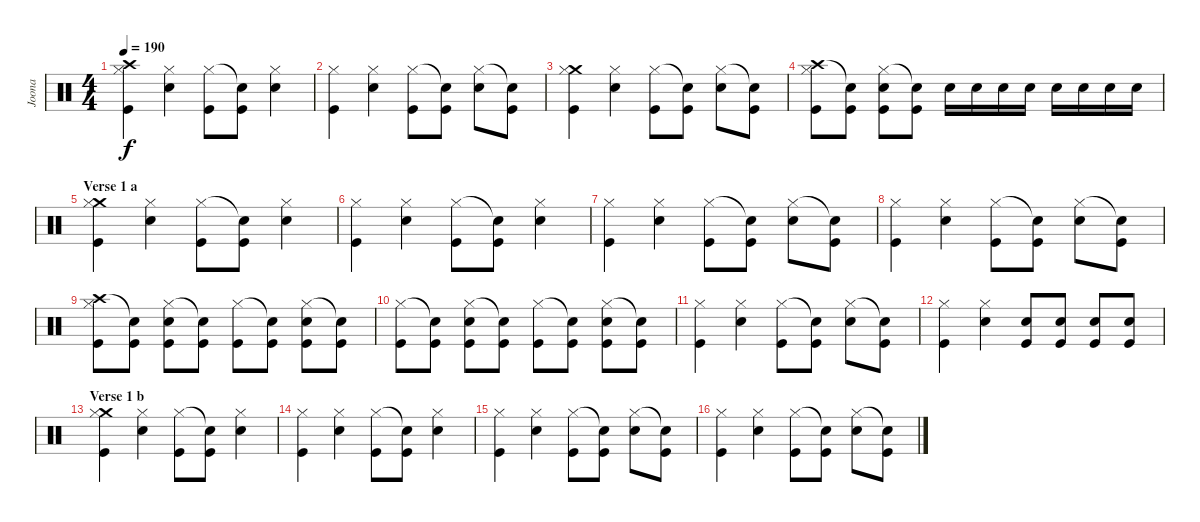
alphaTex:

\track ("Joona" "Joona") {instrument percussion}
\staff {score}
\articulation defaults
\ts (4 4)
\tempo 190
\clef neutral
\ks c
("Crash high (hit)" "Hi-Hat (closed)" "Kick (hit)").4{dy f} ("Hi-Hat (closed)" "Snare (hit) 2").4 ("Hi-Hat (closed)" "Kick (hit)").8 ("Snare (hit)"{t} "Kick (hit)").8 ("Hi-Hat (closed)" "Snare (hit) 2").4 |
("Hi-Hat (closed)" "Kick (hit)").4 ("Hi-Hat (closed)" "Snare (hit) 2").4 ("Hi-Hat (closed)" "Kick (hit)").8 ("Snare (hit)"{t} "Kick (hit)").8 ("Hi-Hat (closed)" "Snare (hit) 2").8 ("Snare (hit)"{t} "Kick (hit)").8 |
("Crash medium (hit)" "Hi-Hat (closed)" "Kick (hit)").4 ("Hi-Hat (closed)" "Snare (hit) 2").4 ("Hi-Hat (closed)" "Kick (hit)").8 ("Snare (hit)"{t} "Kick (hit)").8 ("Hi-Hat (closed)" "Snare (hit) 2").8 ("Snare (hit)"{t} "Kick (hit)").8 |
("Crash high (hit)" "Hi-Hat (closed)" "Kick (hit)").8 ("Snare (hit)"{t} "Kick (hit)").8 ("Hi-Hat (closed)" "Snare (hit) 2" "Kick (hit)").8 ("Snare (hit)"{t} "Kick (hit)").8 "Snare (hit) 2".16 "Snare (hit) 2".16 "Snare (hit) 2".16 "Snare (hit) 2".16 "Snare (hit) 2".16 "Snare (hit) 2".16 "Snare (hit) 2".16 "Snare (hit) 2".16 |
\section ("" "Verse 1 a")
("Crash medium (hit)" "Hi-Hat (closed)" "Kick (hit)").4 ("Hi-Hat (closed)" "Snare (hit) 2").4 ("Hi-Hat (closed)" "Kick (hit)").8 ("Snare (hit)"{t} "Kick (hit)").8 ("Hi-Hat (closed)" "Snare (hit) 2").4 |
("Hi-Hat (closed)" "Kick (hit)").4 ("Hi-Hat (closed)" "Snare (hit) 2").4 ("Hi-Hat (closed)" "Kick (hit)").8 ("Snare (hit)"{t} "Kick (hit)").8 ("Hi-Hat (closed)" "Snare (hit) 2").4 |
("Hi-Hat (closed)" "Kick (hit)").4 ("Hi-Hat (closed)" "Snare (hit) 2").4 ("Hi-Hat (closed)" "Kick (hit)").8 ("Snare (hit)"{t} "Kick (hit)").8 ("Hi-Hat (closed)" "Snare (hit) 2").8 ("Snare (hit)"{t} "Kick (hit)").8 |
("Hi-Hat (closed)" "Kick (hit)").4 ("Hi-Hat (closed)" "Snare (hit) 2").4 ("Hi-Hat (closed)" "Kick (hit)").8 ("Snare (hit)"{t} "Kick (hit)").8 ("Hi-Hat (closed)" "Snare (hit) 2").8 ("Snare (hit)"{t} "Kick (hit)").8 |
("Crash high (hit)" "Hi-Hat (closed)" "Kick (hit)").8 ("Snare (hit)"{t} "Kick (hit)").8 ("Hi-Hat (closed)" "Snare (hit) 2" "Kick (hit)").8 ("Snare (hit)"{t} "Kick (hit)").8 ("Hi-Hat (closed)" "Kick (hit)").8 ("Snare (hit)"{t} "Kick (hit)").8 ("Hi-Hat (closed)" "Snare (hit) 2" "Kick (hit)").8 ("Snare (hit)"{t} "Kick (hit)").8 |
("Hi-Hat (closed)" "Kick (hit)").8 ("Snare (hit)"{t} "Kick (hit)").8 ("Hi-Hat (closed)" "Snare (hit) 2" "Kick (hit)").8 ("Snare (hit)"{t} "Kick (hit)").8 ("Hi-Hat (closed)" "Kick (hit)").8 ("Snare (hit)"{t} "Kick (hit)").8 ("Hi-Hat (closed)" "Snare (hit) 2" "Kick (hit)").8 ("Snare (hit)"{t} "Kick (hit)").8 |
("Hi-Hat (closed)" "Kick (hit)").4 ("Hi-Hat (closed)" "Snare (hit) 2").4 ("Hi-Hat (closed)" "Kick (hit)").8 ("Snare (hit)"{t} "Kick (hit)").8 ("Hi-Hat (closed)" "Snare (hit) 2").8 ("Snare (hit)"{t} "Kick (hit)").8 |
("Hi-Hat (closed)" "Kick (hit)").4 ("Hi-Hat (closed)" "Snare (hit) 2").4 ("Snare (hit) 2" "Kick (hit)").8 ("Snare (hit) 2" "Kick (hit)").8 ("Snare (hit) 2" "Kick (hit)").8 ("Snare (hit) 2" "Kick (hit)").8 |
\section ("" "Verse 1 b")
("Crash medium (hit)" "Hi-Hat (closed)" "Kick (hit)").4 ("Hi-Hat (closed)" "Snare (hit) 2").4 ("Hi-Hat (closed)" "Kick (hit)").8 ("Snare (hit)"{t} "Kick (hit)").8 ("Hi-Hat (closed)" "Snare (hit) 2").4 |
("Hi-Hat (closed)" "Kick (hit)").4 ("Hi-Hat (closed)" "Snare (hit) 2").4 ("Hi-Hat (closed)" "Kick (hit)").8 ("Snare (hit)"{t} "Kick (hit)").8 ("Hi-Hat (closed)" "Snare (hit) 2").4 |
("Hi-Hat (closed)" "Kick (hit)").4 ("Hi-Hat (closed)" "Snare (hit) 2").4 ("Hi-Hat (closed)" "Kick (hit)").8 ("Snare (hit)"{t} "Kick (hit)").8 ("Hi-Hat (closed)" "Snare (hit) 2").8 ("Snare (hit)"{t} "Kick (hit)").8 |
("Hi-Hat (closed)" "Kick (hit)").4 ("Hi-Hat (closed)" "Snare (hit) 2").4 ("Hi-Hat (closed)" "Kick (hit)").8 ("Snare (hit)"{t} "Kick (hit)").8 ("Hi-Hat (closed)" "Snare (hit) 2").8 ("Snare (hit)"{t} "Kick (hit)").8
